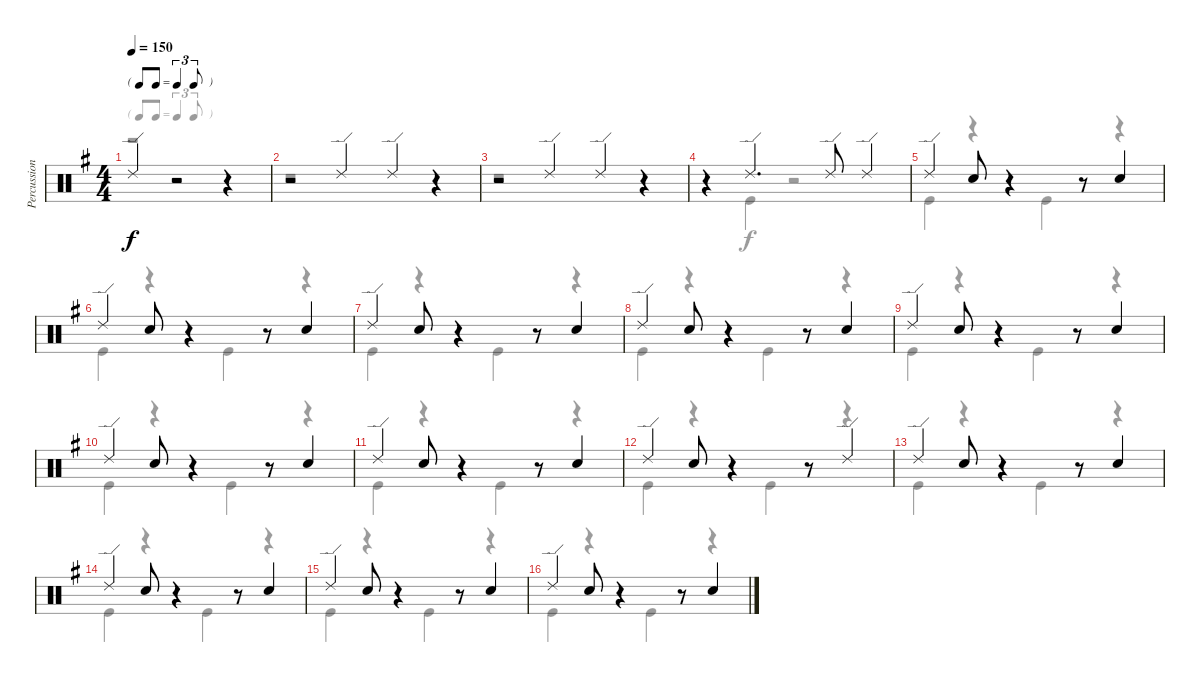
\track ("Percussion" "Percussion") {instrument percussion}
\staff {score}
\articulation defaults
\voice
\ts (4 4)
\tf triplet8th
\tempo 150
\clef neutral
\ks g "Ride (edge) 2".4{dy f}
r.2 r.4 |
r.2 "Ride (edge) 2".2 "Ride (edge) 2".4 r.4 |
r.2 "Ride (edge) 2".2 "Ride (edge) 2".4 r.4 |
r.4 "Ride (edge) 2".4{d} "Ride (edge) 2".8 "Ride (edge) 2".4 |
"Ride (edge) 2".4 "Electric Snare (hit)".8 r.4 r.8 "Electric Snare (hit)".4 |
"Ride (edge) 2".4 "Electric Snare (hit)".8 r.4 r.8 "Electric Snare (hit)".4 |
"Ride (edge) 2".4 "Electric Snare (hit)".8 r.4 r.8 "Electric Snare (hit)".4 |
"Ride (edge) 2".4 "Electric Snare (hit)".8 r.4 r.8 "Electric Snare (hit)".4 |
"Ride (edge) 2".4 "Electric Snare (hit)".8 r.4 r.8 "Electric Snare (hit)".4 |
"Ride (edge) 2".4 "Electric Snare (hit)".8 r.4 r.8 "Electric Snare (hit)".4 |
"Ride (edge) 2".4 "Electric Snare (hit)".8 r.4 r.8 "Electric Snare (hit)".4 |
"Ride (edge) 2".4 "Electric Snare (hit)".8 r.4 r.8 "Ride (edge) 2".4 |
"Ride (edge) 2".4 "Electric Snare (hit)".8 r.4 r.8 "Electric Snare (hit)".4 |
"Ride (edge) 2".4 "Electric Snare (hit)".8 r.4 r.8 "Electric Snare (hit)".4 |
"Ride (edge) 2".4 "Electric Snare (hit)".8 r.4 r.8 "Electric Snare (hit)".4 |
"Ride (edge) 2".4 "Electric Snare (hit)".8 r.4 r.8 "Electric Snare (hit)".4
\voice
\clef neutral
\ottava regular
\simile none
\ks g
r.1{dy f} |
r.1 |
r.1 |
r.4 "Kick (hit)".4 r.2 |
"Kick (hit)".4 r.4 "Kick (hit)".4 r.4 |
"Kick (hit)".4 r.4 "Kick (hit)".4 r.4 |
"Kick (hit)".4 r.4 "Kick (hit)".4 r.4 |
"Kick (hit)".4 r.4 "Kick (hit)".4 r.4 |
"Kick (hit)".4 r.4 "Kick (hit)".4 r.4 |
"Kick (hit)".4 r.4 "Kick (hit)".4 r.4 |
"Kick (hit)".4 r.4 "Kick (hit)".4 r.4 |
"Kick (hit)".4 r.4 "Kick (hit)".4 r.4 |
"Kick (hit)".4 r.4 "Kick (hit)".4 r.4 |
"Kick (hit)".4 r.4 "Kick (hit)".4 r.4 |
"Kick (hit)".4 r.4 "Kick (hit)".4 r.4 |
"Kick (hit)".4 r.4 "Kick (hit)".4 r.4
